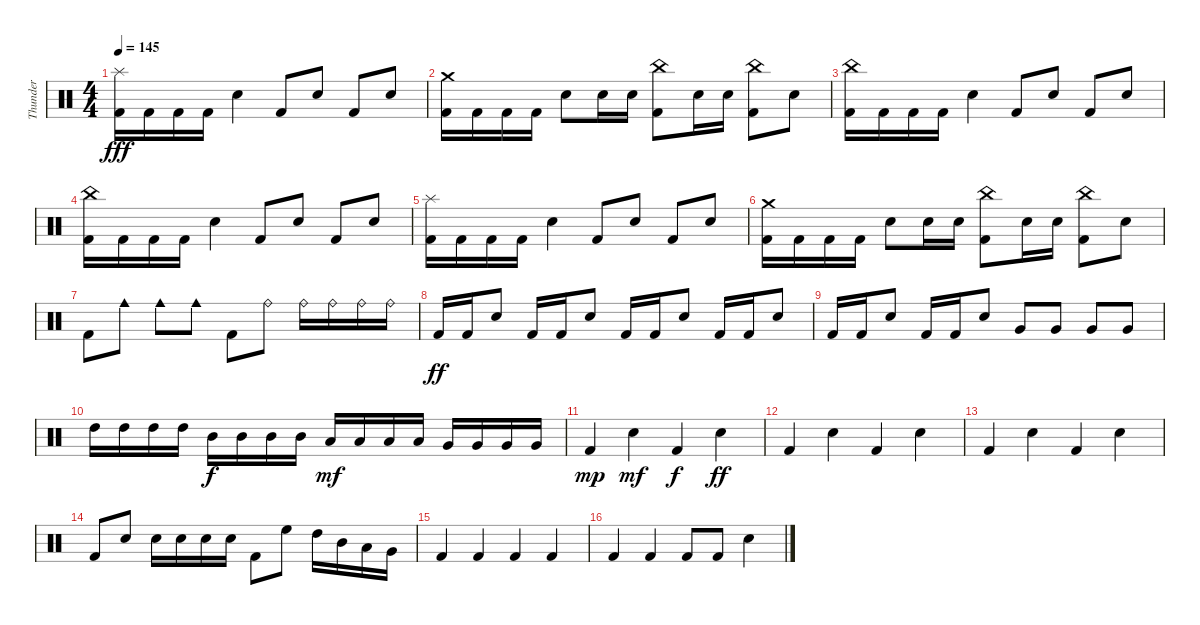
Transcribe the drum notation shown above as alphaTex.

\track ("Thunder" "Thunder") {instrument percussion}
\staff {score}
\articulation defaults
\ts (4 4)
\tempo 145
\clef neutral
\ks c
("Splash (hit)" "Kick (hit) 2").16{dy fff} "Kick (hit) 2".16 "Kick (hit) 2".16 "Kick (hit) 2".16 "Electric Snare (hit)".4 "Kick (hit) 2".8 "Electric Snare (hit)".8 "Kick (hit) 2".8 "Electric Snare (hit)".8 |
("Crash medium (hit)" "Kick (hit) 2").16 "Kick (hit) 2".16 "Kick (hit) 2".16 "Kick (hit) 2".16 "Electric Snare (hit)".8 "Electric Snare (hit)".16 "Electric Snare (hit)".16 ("China (hit)" "Kick (hit) 2").8 "Electric Snare (hit)".16 "Electric Snare (hit)".16 ("China (hit)" "Kick (hit) 2").8 "Electric Snare (hit)".8 |
("China (hit)" "Kick (hit) 2").16 "Kick (hit) 2".16 "Kick (hit) 2".16 "Kick (hit) 2".16 "Electric Snare (hit)".4 "Kick (hit) 2".8 "Electric Snare (hit)".8 "Kick (hit) 2".8 "Electric Snare (hit)".8 |
("China (hit)" "Kick (hit) 2").16 "Kick (hit) 2".16 "Kick (hit) 2".16 "Kick (hit) 2".16 "Electric Snare (hit)".4 "Kick (hit) 2".8 "Electric Snare (hit)".8 "Kick (hit) 2".8 "Electric Snare (hit)".8 |
("Splash (hit)" "Kick (hit) 2").16 "Kick (hit) 2".16 "Kick (hit) 2".16 "Kick (hit) 2".16 "Electric Snare (hit)".4 "Kick (hit) 2".8 "Electric Snare (hit)".8 "Kick (hit) 2".8 "Electric Snare (hit)".8 |
("Crash medium (hit)" "Kick (hit) 2").16 "Kick (hit) 2".16 "Kick (hit) 2".16 "Kick (hit) 2".16 "Electric Snare (hit)".8 "Electric Snare (hit)".16 "Electric Snare (hit)".16 ("China (hit)" "Kick (hit) 2").8 "Electric Snare (hit)".16 "Electric Snare (hit)".16 ("China (hit)" "Kick (hit) 2").8 "Electric Snare (hit)".8 |
"Kick (hit) 2".8 "Cowbell medium (hit)".8 "Cowbell medium (hit)".8 "Cowbell medium (hit)".8 "Kick (hit) 2".8 "Ride (bell)".8 "Ride (bell)".16 "Ride (bell)".16 "Ride (bell)".16 "Ride (bell)".16 |
"Kick (hit) 2".16{dy ff} "Kick (hit) 2".16 "Electric Snare (hit)".8 "Kick (hit) 2".16 "Kick (hit) 2".16 "Electric Snare (hit)".8 "Kick (hit) 2".16 "Kick (hit) 2".16 "Electric Snare (hit)".8 "Kick (hit) 2".16 "Kick (hit) 2".16 "Electric Snare (hit)".8 |
"Kick (hit) 2".16 "Kick (hit) 2".16 "Electric Snare (hit)".8 "Kick (hit) 2".16 "Kick (hit) 2".16 "Electric Snare (hit)".8 "Very Low Tom (hit)".8 "Very Low Tom (hit)".8 "Very Low Tom (hit)".8 "Very Low Tom (hit)".8 |
"High Tom (hit)".16 "High Tom (hit)".16 "High Tom (hit)".16 "High Tom (hit)".16 "Mid Tom (hit)".16{dy f} "Mid Tom (hit)".16 "Mid Tom (hit)".16 "Mid Tom (hit)".16 "Low Tom (hit)".16{dy mf} "Low Tom (hit)".16 "Low Tom (hit)".16 "Low Tom (hit)".16 "Very Low Tom (hit)".16 "Very Low Tom (hit)".16 "Very Low Tom (hit)".16 "Very Low Tom (hit)".16 |
"Kick (hit) 2".4{dy mp} "Electric Snare (hit)".4{dy mf} "Kick (hit) 2".4{dy f} "Electric Snare (hit)".4{dy ff} |
"Kick (hit) 2".4 "Electric Snare (hit)".4 "Kick (hit) 2".4 "Electric Snare (hit)".4 |
"Kick (hit) 2".4 "Electric Snare (hit)".4 "Kick (hit) 2".4 "Electric Snare (hit)".4 |
"Kick (hit) 2".8 "Electric Snare (hit)".8 "Electric Snare (hit)".16 "Electric Snare (hit)".16 "Electric Snare (hit)".16 "Electric Snare (hit)".16 "Kick (hit) 2".8 "High Floor Tom (hit)".8 "High Tom (hit)".16 "Mid Tom (hit)".16 "Low Tom (hit)".16 "Very Low Tom (hit)".16 |
"Kick (hit) 2".4 "Kick (hit) 2".4 "Kick (hit) 2".4 "Kick (hit) 2".4 |
"Kick (hit) 2".4 "Kick (hit) 2".4 "Kick (hit) 2".8 "Kick (hit) 2".8 "Electric Snare (hit)".4
